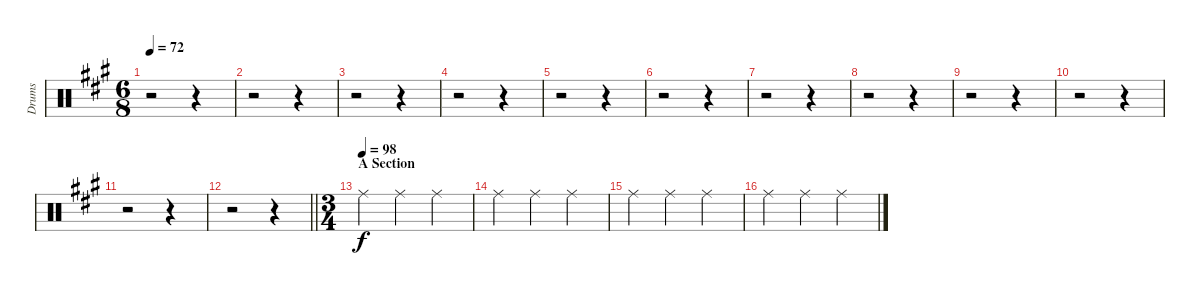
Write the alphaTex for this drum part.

\track ("Drums" "Drums") {instrument percussion}
\staff {score}
\articulation defaults
\ts (6 8)
\tempo 72
\clef neutral
\ks f#minor
r.2{dy f} r.4 |
r.2 r.4 |
r.2 r.4 |
r.2 r.4 |
r.2 r.4 |
r.2 r.4 |
r.2 r.4 |
r.2 r.4 |
r.2 r.4 |
r.2 r.4 |
r.2 r.4 |
\barLineRight lightlight
r.2 r.4 |
\ts (3 4)
\section ("" "A Section")
\tempo (98)
"Ride (middle)".4 "Ride (middle)".4 "Ride (middle)".4 |
"Ride (middle)".4 "Ride (middle)".4 "Ride (middle)".4 |
"Ride (middle)".4 "Ride (middle)".4 "Ride (middle)".4 |
"Ride (middle)".4 "Ride (middle)".4 "Ride (middle)".4
